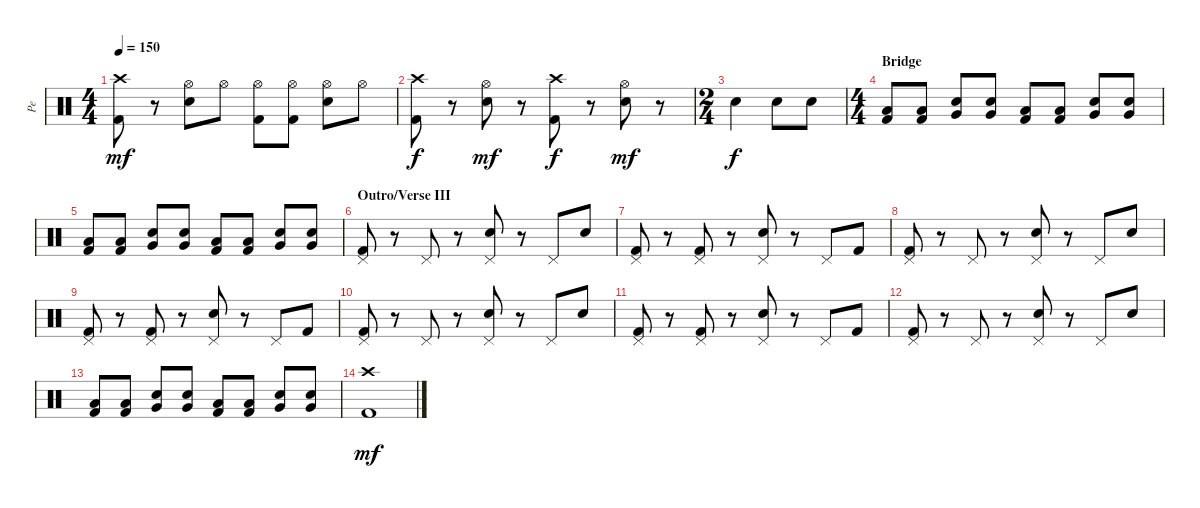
\track ("Pe" "Pe") {instrument percussion}
\staff {score}
\articulation defaults
\ts (4 4)
\tempo 150
\clef neutral
\ks c
("Crash high (hit)" "Kick (hit) 2").8{dy mf} r.8 ("Hi-Hat (open)" "Snare (hit) 2").8 "Hi-Hat (open)".8 ("Hi-Hat (open)" "Kick (hit) 2").8 ("Hi-Hat (open)" "Kick (hit) 2").8 ("Hi-Hat (open)" "Snare (hit) 2").8 "Hi-Hat (open)".8 |
("Crash high (hit)" "Kick (hit) 2").8{dy f} r.8 ("Hi-Hat (open)" "Snare (hit) 2").8{dy mf} r.8 ("Crash high (hit)" "Kick (hit) 2").8{dy f} r.8 ("Hi-Hat (open)" "Snare (hit) 2").8{dy mf} r.8 |
\ts (2 4)
"Snare (hit) 2".4{dy f} "Snare (hit) 2".8 "Snare (hit) 2".8 |
\ts (4 4)
\section ("" "Bridge")
("Low Tom (hit)" "Kick (hit) 2").8 ("Low Tom (hit)" "Kick (hit) 2").8 ("Snare (hit) 2" "Very Low Tom (hit)").8 ("Snare (hit) 2" "Very Low Tom (hit)").8 ("Low Tom (hit)" "Kick (hit) 2").8 ("Low Tom (hit)" "Kick (hit) 2").8 ("Snare (hit) 2" "Very Low Tom (hit)").8 ("Snare (hit) 2" "Very Low Tom (hit)").8 |
("Low Tom (hit)" "Kick (hit) 2").8 ("Low Tom (hit)" "Kick (hit) 2").8 ("Snare (hit) 2" "Very Low Tom (hit)").8 ("Snare (hit) 2" "Very Low Tom (hit)").8 ("Low Tom (hit)" "Kick (hit) 2").8 ("Low Tom (hit)" "Kick (hit) 2").8 ("Snare (hit) 2" "Very Low Tom (hit)").8 ("Snare (hit) 2" "Very Low Tom (hit)").8 |
\section ("" "Outro/Verse III")
("Pedal Hi-Hat (hit)" "Kick (hit) 2").8 r.8 "Pedal Hi-Hat (hit)".8 r.8 ("Pedal Hi-Hat (hit)" "Snare (hit) 2").8 r.8 "Pedal Hi-Hat (hit)".8 "Snare (hit) 2".8 |
("Pedal Hi-Hat (hit)" "Kick (hit) 2").8 r.8 ("Pedal Hi-Hat (hit)" "Kick (hit) 2").8 r.8 ("Pedal Hi-Hat (hit)" "Snare (hit) 2").8 r.8 "Pedal Hi-Hat (hit)".8 "Kick (hit) 2".8 |
("Pedal Hi-Hat (hit)" "Kick (hit) 2").8 r.8 "Pedal Hi-Hat (hit)".8 r.8 ("Pedal Hi-Hat (hit)" "Snare (hit) 2").8 r.8 "Pedal Hi-Hat (hit)".8 "Snare (hit) 2".8 |
("Pedal Hi-Hat (hit)" "Kick (hit) 2").8 r.8 ("Pedal Hi-Hat (hit)" "Kick (hit) 2").8 r.8 ("Pedal Hi-Hat (hit)" "Snare (hit) 2").8 r.8 "Pedal Hi-Hat (hit)".8 "Kick (hit) 2".8 |
("Pedal Hi-Hat (hit)" "Kick (hit) 2").8 r.8 "Pedal Hi-Hat (hit)".8 r.8 ("Pedal Hi-Hat (hit)" "Snare (hit) 2").8 r.8 "Pedal Hi-Hat (hit)".8 "Snare (hit) 2".8 |
("Pedal Hi-Hat (hit)" "Kick (hit) 2").8 r.8 ("Pedal Hi-Hat (hit)" "Kick (hit) 2").8 r.8 ("Pedal Hi-Hat (hit)" "Snare (hit) 2").8 r.8 "Pedal Hi-Hat (hit)".8 "Kick (hit) 2".8 |
("Pedal Hi-Hat (hit)" "Kick (hit) 2").8 r.8 "Pedal Hi-Hat (hit)".8 r.8 ("Pedal Hi-Hat (hit)" "Snare (hit) 2").8 r.8 "Pedal Hi-Hat (hit)".8 "Snare (hit) 2".8 |
("Low Tom (hit)" "Kick (hit) 2").8 ("Low Tom (hit)" "Kick (hit) 2").8 ("Snare (hit) 2" "Very Low Tom (hit)").8 ("Snare (hit) 2" "Very Low Tom (hit)").8 ("Low Tom (hit)" "Kick (hit) 2").8 ("Low Tom (hit)" "Kick (hit) 2").8 ("Snare (hit) 2" "Very Low Tom (hit)").8 ("Snare (hit) 2" "Very Low Tom (hit)").8 |
("Crash high (hit)" "Kick (hit) 2").1{dy mf}
